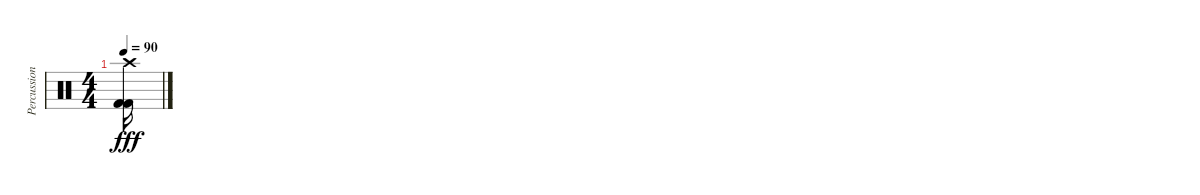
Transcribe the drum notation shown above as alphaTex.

\track ("Percussion" "Percussion") {instrument percussion}
\staff {score}
\articulation defaults
\ts (4 4)
\tempo 90
\clef neutral
\ks c
("Crash high (hit)" "Kick (hit) 2" "Kick (hit) 2").16{dy fff}
